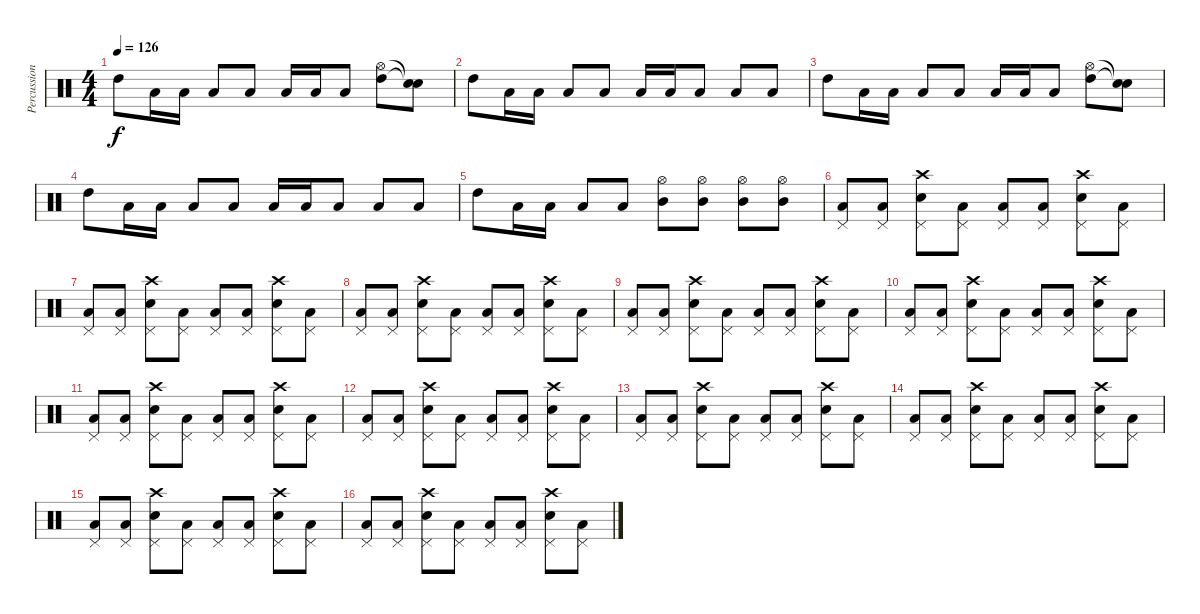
\track ("Percussion" "Percussion") {instrument percussion}
\staff {score}
\articulation defaults
\ts (4 4)
\tempo 126
\clef neutral
\ks c "High Tom (hit)".8{dy f} "Low Tom (hit)".16 "Low Tom (hit)".16 "Low Tom (hit)".8 "Low Tom (hit)".8 "Low Tom (hit)".16 "Low Tom (hit)".16 "Low Tom (hit)".8
("High Tom (hit)" "Hi-Hat (open)").8 ("Snare (hit)"{t} "Snare (hit)"{t}).8 |
"High Tom (hit)".8 "Low Tom (hit)".16 "Low Tom (hit)".16 "Low Tom (hit)".8 "Low Tom (hit)".8 "Low Tom (hit)".16 "Low Tom (hit)".16 "Low Tom (hit)".8 "Low Tom (hit)".8 "Low Tom (hit)".8 |
"High Tom (hit)".8 "Low Tom (hit)".16 "Low Tom (hit)".16 "Low Tom (hit)".8 "Low Tom (hit)".8 "Low Tom (hit)".16 "Low Tom (hit)".16 "Low Tom (hit)".8 ("High Tom (hit)" "Hi-Hat (open)").8 ("Snare (hit)"{t} "Snare (hit)"{t}).8 |
"High Tom (hit)".8 "Low Tom (hit)".16 "Low Tom (hit)".16 "Low Tom (hit)".8 "Low Tom (hit)".8 "Low Tom (hit)".16 "Low Tom (hit)".16 "Low Tom (hit)".8 "Low Tom (hit)".8 "Low Tom (hit)".8 |
"High Tom (hit)".8 "Low Tom (hit)".16 "Low Tom (hit)".16 "Low Tom (hit)".8 "Low Tom (hit)".8 ("Mid Tom (hit)" "Hi-Hat (open)").8 ("Mid Tom (hit)" "Hi-Hat (open)").8 ("Mid Tom (hit)" "Hi-Hat (open)").8 ("Mid Tom (hit)" "Hi-Hat (open)").8 |
("Low Floor Tom (hit)" "Pedal Hi-Hat (hit)").8 ("Pedal Hi-Hat (hit)" "Low Tom (hit)").8 ("Electric Snare (hit)" "Crash high (hit)" "Pedal Hi-Hat (hit)").8 ("Pedal Hi-Hat (hit)" "Low Tom (hit)").8 ("Low Floor Tom (hit)" "Pedal Hi-Hat (hit)").8 ("Low Floor Tom (hit)" "Pedal Hi-Hat (hit)").8 ("Electric Snare (hit)" "Crash high (hit)" "Pedal Hi-Hat (hit)").8 ("Pedal Hi-Hat (hit)" "Low Tom (hit)").8 |
("Low Floor Tom (hit)" "Pedal Hi-Hat (hit)").8 ("Pedal Hi-Hat (hit)" "Low Tom (hit)").8 ("Electric Snare (hit)" "Crash high (hit)" "Pedal Hi-Hat (hit)").8 ("Pedal Hi-Hat (hit)" "Low Tom (hit)").8 ("Low Floor Tom (hit)" "Pedal Hi-Hat (hit)").8 ("Low Floor Tom (hit)" "Pedal Hi-Hat (hit)").8 ("Electric Snare (hit)" "Crash high (hit)" "Pedal Hi-Hat (hit)").8 ("Pedal Hi-Hat (hit)" "Low Tom (hit)").8 |
("Low Floor Tom (hit)" "Pedal Hi-Hat (hit)").8 ("Pedal Hi-Hat (hit)" "Low Tom (hit)").8 ("Electric Snare (hit)" "Crash high (hit)" "Pedal Hi-Hat (hit)").8 ("Pedal Hi-Hat (hit)" "Low Tom (hit)").8 ("Low Floor Tom (hit)" "Pedal Hi-Hat (hit)").8 ("Low Floor Tom (hit)" "Pedal Hi-Hat (hit)").8 ("Electric Snare (hit)" "Crash high (hit)" "Pedal Hi-Hat (hit)").8 ("Pedal Hi-Hat (hit)" "Low Tom (hit)").8 |
("Low Floor Tom (hit)" "Pedal Hi-Hat (hit)").8 ("Pedal Hi-Hat (hit)" "Low Tom (hit)").8 ("Electric Snare (hit)" "Crash high (hit)" "Pedal Hi-Hat (hit)").8 ("Pedal Hi-Hat (hit)" "Low Tom (hit)").8 ("Low Floor Tom (hit)" "Pedal Hi-Hat (hit)").8 ("Low Floor Tom (hit)" "Pedal Hi-Hat (hit)").8 ("Electric Snare (hit)" "Crash high (hit)" "Pedal Hi-Hat (hit)").8 ("Pedal Hi-Hat (hit)" "Low Tom (hit)").8 |
("Low Floor Tom (hit)" "Pedal Hi-Hat (hit)").8 ("Pedal Hi-Hat (hit)" "Low Tom (hit)").8 ("Electric Snare (hit)" "Crash high (hit)" "Pedal Hi-Hat (hit)").8 ("Pedal Hi-Hat (hit)" "Low Tom (hit)").8 ("Low Floor Tom (hit)" "Pedal Hi-Hat (hit)").8 ("Low Floor Tom (hit)" "Pedal Hi-Hat (hit)").8 ("Electric Snare (hit)" "Crash high (hit)" "Pedal Hi-Hat (hit)").8 ("Pedal Hi-Hat (hit)" "Low Tom (hit)").8 |
("Low Floor Tom (hit)" "Pedal Hi-Hat (hit)").8 ("Pedal Hi-Hat (hit)" "Low Tom (hit)").8 ("Electric Snare (hit)" "Crash high (hit)" "Pedal Hi-Hat (hit)").8 ("Pedal Hi-Hat (hit)" "Low Tom (hit)").8 ("Low Floor Tom (hit)" "Pedal Hi-Hat (hit)").8 ("Low Floor Tom (hit)" "Pedal Hi-Hat (hit)").8 ("Electric Snare (hit)" "Crash high (hit)" "Pedal Hi-Hat (hit)").8 ("Pedal Hi-Hat (hit)" "Low Tom (hit)").8 |
("Low Floor Tom (hit)" "Pedal Hi-Hat (hit)").8 ("Pedal Hi-Hat (hit)" "Low Tom (hit)").8 ("Electric Snare (hit)" "Crash high (hit)" "Pedal Hi-Hat (hit)").8 ("Pedal Hi-Hat (hit)" "Low Tom (hit)").8 ("Low Floor Tom (hit)" "Pedal Hi-Hat (hit)").8 ("Low Floor Tom (hit)" "Pedal Hi-Hat (hit)").8 ("Electric Snare (hit)" "Crash high (hit)" "Pedal Hi-Hat (hit)").8 ("Pedal Hi-Hat (hit)" "Low Tom (hit)").8 |
("Low Floor Tom (hit)" "Pedal Hi-Hat (hit)").8 ("Pedal Hi-Hat (hit)" "Low Tom (hit)").8 ("Electric Snare (hit)" "Crash high (hit)" "Pedal Hi-Hat (hit)").8 ("Pedal Hi-Hat (hit)" "Low Tom (hit)").8 ("Low Floor Tom (hit)" "Pedal Hi-Hat (hit)").8 ("Low Floor Tom (hit)" "Pedal Hi-Hat (hit)").8 ("Electric Snare (hit)" "Crash high (hit)" "Pedal Hi-Hat (hit)").8 ("Pedal Hi-Hat (hit)" "Low Tom (hit)").8 |
("Low Floor Tom (hit)" "Pedal Hi-Hat (hit)").8 ("Pedal Hi-Hat (hit)" "Low Tom (hit)").8 ("Electric Snare (hit)" "Crash high (hit)" "Pedal Hi-Hat (hit)").8 ("Pedal Hi-Hat (hit)" "Low Tom (hit)").8 ("Low Floor Tom (hit)" "Pedal Hi-Hat (hit)").8 ("Low Floor Tom (hit)" "Pedal Hi-Hat (hit)").8 ("Electric Snare (hit)" "Crash high (hit)" "Pedal Hi-Hat (hit)").8 ("Pedal Hi-Hat (hit)" "Low Tom (hit)").8 |
("Low Floor Tom (hit)" "Pedal Hi-Hat (hit)").8 ("Pedal Hi-Hat (hit)" "Low Tom (hit)").8 ("Electric Snare (hit)" "Crash high (hit)" "Pedal Hi-Hat (hit)").8 ("Pedal Hi-Hat (hit)" "Low Tom (hit)").8 ("Low Floor Tom (hit)" "Pedal Hi-Hat (hit)").8 ("Low Floor Tom (hit)" "Pedal Hi-Hat (hit)").8 ("Electric Snare (hit)" "Crash high (hit)" "Pedal Hi-Hat (hit)").8 ("Pedal Hi-Hat (hit)" "Low Tom (hit)").8 |
("Low Floor Tom (hit)" "Pedal Hi-Hat (hit)").8 ("Pedal Hi-Hat (hit)" "Low Tom (hit)").8 ("Electric Snare (hit)" "Crash high (hit)" "Pedal Hi-Hat (hit)").8 ("Pedal Hi-Hat (hit)" "Low Tom (hit)").8 ("Low Floor Tom (hit)" "Pedal Hi-Hat (hit)").8 ("Low Floor Tom (hit)" "Pedal Hi-Hat (hit)").8 ("Electric Snare (hit)" "Crash high (hit)" "Pedal Hi-Hat (hit)").8 ("Pedal Hi-Hat (hit)" "Low Tom (hit)").8
